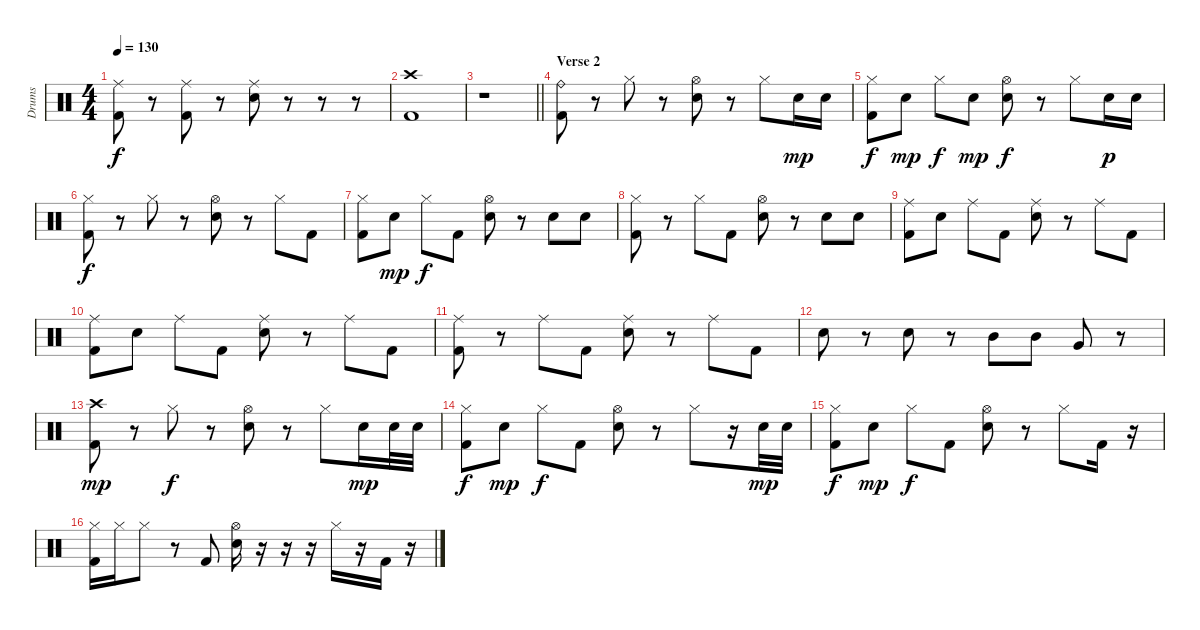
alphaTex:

\track ("Drums" "Drums") {instrument percussion}
\staff {score}
\articulation defaults
\ts (4 4)
\tempo 130
\clef neutral
\ks c
("Ride (middle)" "Kick (hit) 2").8{dy f} r.8 ("Ride (middle)" "Kick (hit) 2").8 r.8 ("Ride (middle)" "Snare (hit) 2").8 r.8 r.8 r.8 |
("Crash high (hit)" "Kick (hit) 2").1 |
\barLineRight lightlight
r.1 |
\section ("" "Verse 2")
("Ride (bell)" "Kick (hit) 2").8{volume 14} r.8 "Hi-Hat (closed)".8 r.8 ("Hi-Hat (open)" "Snare (hit) 2").8 r.8 "Hi-Hat (closed)".8 "Snare (hit) 2".16{dy mp} "Snare (hit) 2".16 |
("Hi-Hat (closed)" "Kick (hit) 2").8{dy f} "Snare (hit) 2".8{dy mp} "Hi-Hat (closed)".8{dy f} "Snare (hit) 2".8{dy mp} ("Hi-Hat (open)" "Snare (hit) 2").8{dy f} r.8 "Hi-Hat (closed)".8 "Snare (hit) 2".16{dy p} "Snare (hit) 2".16 |
("Hi-Hat (closed)" "Kick (hit) 2").8{dy f} r.8 "Hi-Hat (closed)".8 r.8 ("Hi-Hat (open)" "Snare (hit) 2").8 r.8 "Hi-Hat (closed)".8 "Kick (hit) 2".8 |
("Hi-Hat (closed)" "Kick (hit) 2").8 "Snare (hit) 2".8{dy mp} "Hi-Hat (closed)".8{dy f} "Kick (hit) 2".8 ("Hi-Hat (open)" "Snare (hit) 2").8 r.8 "Snare (hit) 2".8 "Snare (hit) 2".8 |
("Hi-Hat (closed)" "Kick (hit) 2").8 r.8 "Hi-Hat (closed)".8 "Kick (hit) 2".8 ("Hi-Hat (open)" "Snare (hit) 2").8 r.8 "Snare (hit) 2".8 "Snare (hit) 2".8 |
("Ride (middle)" "Kick (hit) 2").8 "Snare (hit) 2".8 "Ride (middle)".8 "Kick (hit) 2".8 ("Ride (middle)" "Snare (hit) 2").8 r.8 "Ride (middle)".8 "Kick (hit) 2".8 |
("Ride (middle)" "Kick (hit) 2").8 "Snare (hit) 2".8 "Ride (middle)".8 "Kick (hit) 2".8 ("Ride (middle)" "Snare (hit) 2").8 r.8 "Ride (middle)".8 "Kick (hit) 2".8 |
("Ride (middle)" "Kick (hit) 2").8 r.8 "Ride (middle)".8 "Kick (hit) 2".8 ("Ride (middle)" "Snare (hit) 2").8 r.8 "Ride (middle)".8 "Kick (hit) 2".8 |
"Snare (hit) 2".8 r.8 "Snare (hit) 2".8 r.8 "Mid Tom (hit)".8 "Mid Tom (hit)".8 "Very Low Tom (hit)".8 r.8 |
("Crash high (hit)" "Kick (hit) 2").8{dy mp} r.8 "Hi-Hat (closed)".8{dy f} r.8 ("Hi-Hat (open)" "Snare (hit) 2").8 r.8 "Hi-Hat (closed)".8 "Snare (hit) 2".16{dy mp} "Snare (hit) 2".32 "Snare (hit) 2".32 |
("Hi-Hat (closed)" "Kick (hit) 2").8{dy f} "Snare (hit) 2".8{dy mp} "Hi-Hat (closed)".8{dy f} "Kick (hit) 2".8 ("Hi-Hat (open)" "Snare (hit) 2").8 r.8 "Hi-Hat (closed)".8 r.16 "Snare (hit) 2".32{dy mp} "Snare (hit) 2".32 |
("Hi-Hat (closed)" "Kick (hit) 2").8{dy f} "Snare (hit) 2".8{dy mp} "Hi-Hat (closed)".8{dy f} "Kick (hit) 2".8 ("Hi-Hat (open)" "Snare (hit) 2").8 r.8 "Hi-Hat (closed)".8 "Kick (hit) 2".16 r.16 |
("Hi-Hat (closed)" "Kick (hit) 2").16 "Hi-Hat (closed)".16 "Hi-Hat (closed)".8 r.8 "Kick (hit) 2".8 ("Hi-Hat (open)" "Snare (hit) 2").16 r.16 r.16 r.16 "Hi-Hat (closed)".16 r.16 "Kick (hit) 2".16 r.16
